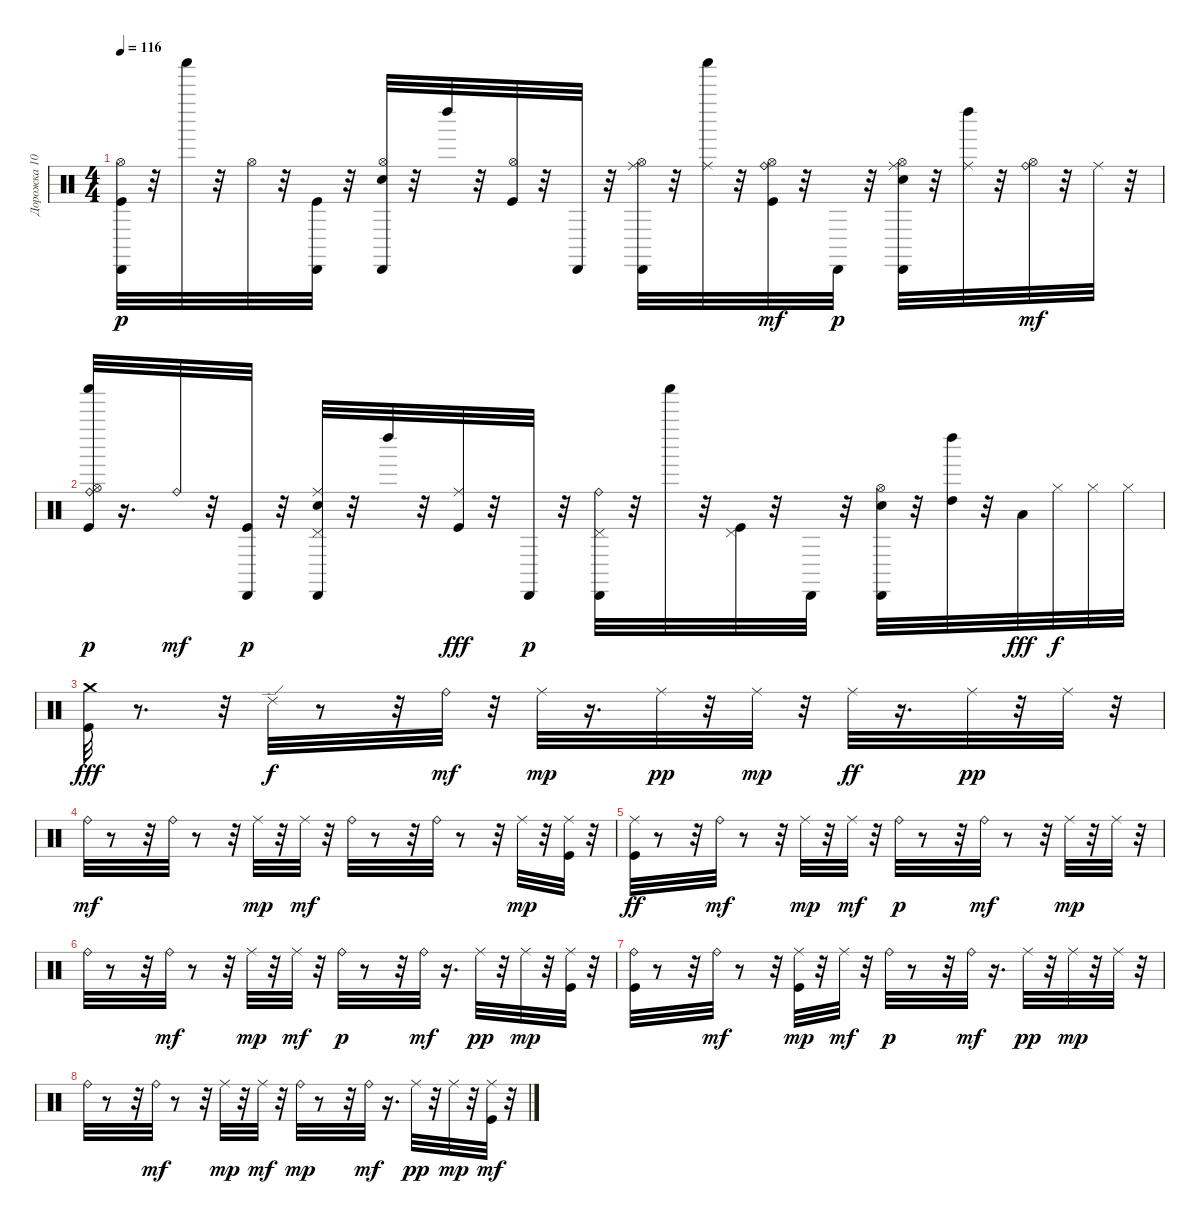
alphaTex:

\track ("Дорожка 10" "Дорожка 10") {instrument percussion}
\staff {score}
\articulation defaults
\ts (4 4)
\tempo 116
\clef neutral
\ks c
("Kick (hit)" "Hi-Hat (open)" "Cabasa (hit)").32{dy p} r.32 "Shaker (hit)".32 r.32 "Hi-Hat (open)".32 r.32 ("Kick (hit)" "Cabasa (hit)").32 r.32 ("Electric Snare (hit)" "Hi-Hat (open)" "Cabasa (hit)").32 r.32 "Left Maraca (hit)".32 r.32 ("Kick (hit)" "Hi-Hat (open)").32 r.32 "Cabasa (hit)".32 r.32 ("Hi-Hat (open)" "Ride (middle)" "Cabasa (hit)").32 r.32 ("Ride (middle)" "Shaker (hit)").32 r.32 ("Hi-Hat (open)" "Kick (hit)" "Ride (bell)").32{dy mf} r.32 "Cabasa (hit)".32{dy p} r.32 ("Electric Snare (hit)" "Hi-Hat (open)" "Ride (middle)" "Cabasa (hit)").32 r.32 ("Ride (middle)" "Left Maraca (hit)").32 r.32 ("Hi-Hat (open)" "Ride (bell)").32{dy mf} r.32 "Ride (middle)".32 r.32 |
("Kick (hit)" "Hi-Hat (open)" "Ride (bell)" "Shaker (hit)").32{dy p} r.16{d} "Ride (bell)".32{dy mf} r.32 ("Kick (hit)" "Cabasa (hit)").32{dy p} r.32 ("Electric Snare (hit)" "Ride (middle)" "Pedal Hi-Hat (hit)" "Cabasa (hit)").32 r.32 "Left Maraca (hit)".32 r.32 ("Kick (hit)" "Ride (middle)").32{dy fff} r.32 "Cabasa (hit)".32{dy p} r.32 ("Pedal Hi-Hat (hit)" "Ride (bell)" "Cabasa (hit)").32 r.32 "Shaker (hit)".32 r.32 ("Kick (hit)" "Pedal Hi-Hat (hit)").32 r.32 "Cabasa (hit)".32 r.32 ("Electric Snare (hit)" "Hi-Hat (open)" "Cabasa (hit)").32 r.32 ("High Tom (hit)" "Left Maraca (hit)").32 r.32 "Low Tom (hit)".32{dy fff} "Hi-Hat (closed)".32{dy f} "Hi-Hat (closed)".32 "Hi-Hat (closed)".32 |
("Kick (hit)" "Crash medium (hit)").32{dy fff} r.8{d} r.32 "Ride (edge) 2".32{dy f} r.8 r.32 "Ride (bell)".32{dy mf} r.32 "Ride (middle)".32{dy mp} r.16{d} "Ride (middle)".32{dy pp} r.32 "Ride (middle)".32{dy mp} r.32 "Ride (middle)".32{dy ff} r.16{d} "Ride (middle)".32{dy pp} r.32 "Ride (middle)".32 r.32 |
"Ride (bell)".32{dy mf} r.8 r.32 "Ride (bell)".32 r.8 r.32 "Ride (middle)".32{dy mp} r.32 "Ride (middle)".32{dy mf} r.32 "Ride (bell)".32 r.8 r.32 "Ride (bell)".32 r.8 r.32 "Ride (middle)".32{dy mp} r.32 ("Ride (middle)" "Kick (hit)").32 r.32 |
("Kick (hit)" "Ride (middle)").32{dy ff} r.8 r.32 "Ride (bell)".32{dy mf} r.8 r.32 "Ride (middle)".32{dy mp} r.32 "Ride (middle)".32{dy mf} r.32 "Ride (bell)".32{dy p} r.8 r.32 "Ride (bell)".32{dy mf} r.8 r.32 "Ride (middle)".32{dy mp} r.32 "Ride (middle)".32 r.32 |
"Ride (bell)".32 r.8 r.32 "Ride (bell)".32{dy mf} r.8 r.32 "Ride (middle)".32{dy mp} r.32 "Ride (middle)".32{dy mf} r.32 "Ride (bell)".32{dy p} r.8 r.32 "Ride (bell)".32{dy mf} r.16{d} "Ride (middle)".32{dy pp} r.32 "Ride (middle)".32{dy mp} r.32 ("Ride (middle)" "Kick (hit)").32 r.32 |
("Ride (bell)" "Kick (hit)").32 r.8 r.32 "Ride (bell)".32{dy mf} r.8 r.32 ("Ride (middle)" "Kick (hit)").32{dy mp} r.32 "Ride (middle)".32{dy mf} r.32 "Ride (bell)".32{dy p} r.8 r.32 "Ride (bell)".32{dy mf} r.16{d} "Ride (middle)".32{dy pp} r.32 "Ride (middle)".32{dy mp} r.32 "Ride (middle)".32 r.32 |
"Ride (bell)".32 r.8 r.32 "Ride (bell)".32{dy mf} r.8 r.32 "Ride (middle)".32{dy mp} r.32 "Ride (middle)".32{dy mf} r.32 "Ride (bell)".32{dy mp} r.8 r.32 "Ride (bell)".32{dy mf} r.16{d} "Ride (middle)".32{dy pp} r.32 "Ride (middle)".32{dy mp} r.32 ("Ride (middle)" "Kick (hit)").32{dy mf} r.32
